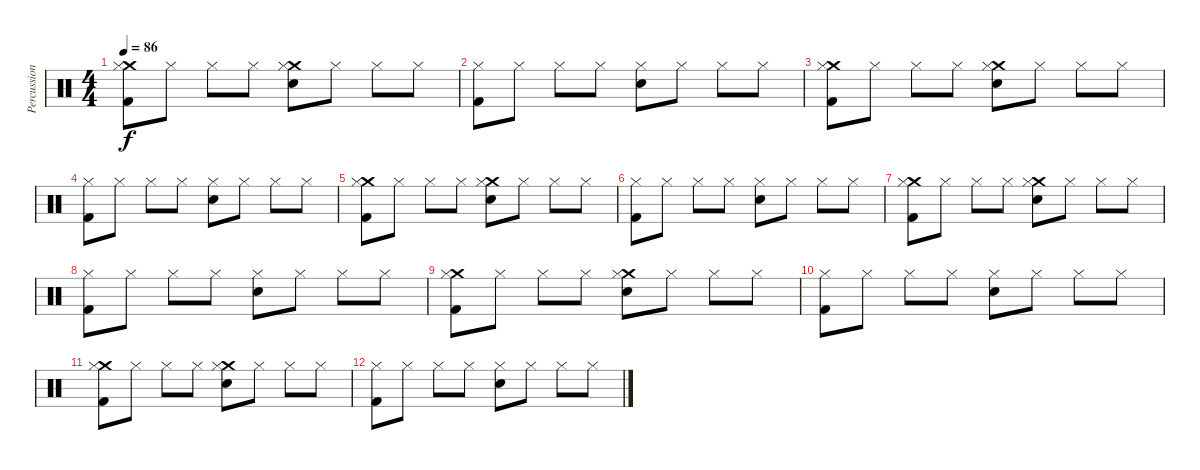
\track ("Percussion" "Percussion") {instrument percussion}
\staff {score}
\articulation defaults
\ts (4 4)
\tempo 86
\clef neutral
\ks c
("Crash medium (hit)" "Hi-Hat (closed)" "Kick (hit) 2").8{dy f volume 15} "Hi-Hat (closed)".8 "Hi-Hat (closed)".8 "Hi-Hat (closed)".8 ("Crash medium (hit)" "Hi-Hat (closed)" "Electric Snare (hit)").8 "Hi-Hat (closed)".8 "Hi-Hat (closed)".8 "Hi-Hat (closed)".8 |
("Hi-Hat (closed)" "Kick (hit) 2").8{volume 13} "Hi-Hat (closed)".8 "Hi-Hat (closed)".8 "Hi-Hat (closed)".8 ("Hi-Hat (closed)" "Electric Snare (hit)").8 "Hi-Hat (closed)".8 "Hi-Hat (closed)".8 "Hi-Hat (closed)".8 |
("Crash medium (hit)" "Hi-Hat (closed)" "Kick (hit) 2").8{volume 12} "Hi-Hat (closed)".8 "Hi-Hat (closed)".8 "Hi-Hat (closed)".8 ("Crash medium (hit)" "Hi-Hat (closed)" "Electric Snare (hit)").8 "Hi-Hat (closed)".8 "Hi-Hat (closed)".8 "Hi-Hat (closed)".8 |
("Hi-Hat (closed)" "Kick (hit) 2").8{volume 11} "Hi-Hat (closed)".8 "Hi-Hat (closed)".8 "Hi-Hat (closed)".8 ("Hi-Hat (closed)" "Electric Snare (hit)").8 "Hi-Hat (closed)".8 "Hi-Hat (closed)".8 "Hi-Hat (closed)".8 |
("Crash medium (hit)" "Hi-Hat (closed)" "Kick (hit) 2").8{volume 10} "Hi-Hat (closed)".8 "Hi-Hat (closed)".8 "Hi-Hat (closed)".8 ("Crash medium (hit)" "Hi-Hat (closed)" "Electric Snare (hit)").8 "Hi-Hat (closed)".8 "Hi-Hat (closed)".8 "Hi-Hat (closed)".8 |
("Hi-Hat (closed)" "Kick (hit) 2").8{volume 9} "Hi-Hat (closed)".8 "Hi-Hat (closed)".8 "Hi-Hat (closed)".8 ("Hi-Hat (closed)" "Electric Snare (hit)").8 "Hi-Hat (closed)".8 "Hi-Hat (closed)".8 "Hi-Hat (closed)".8 |
("Crash medium (hit)" "Hi-Hat (closed)" "Kick (hit) 2").8{volume 8} "Hi-Hat (closed)".8 "Hi-Hat (closed)".8 "Hi-Hat (closed)".8 ("Crash medium (hit)" "Hi-Hat (closed)" "Electric Snare (hit)").8 "Hi-Hat (closed)".8 "Hi-Hat (closed)".8 "Hi-Hat (closed)".8 |
("Hi-Hat (closed)" "Kick (hit) 2").8{volume 6} "Hi-Hat (closed)".8 "Hi-Hat (closed)".8 "Hi-Hat (closed)".8 ("Hi-Hat (closed)" "Electric Snare (hit)").8 "Hi-Hat (closed)".8 "Hi-Hat (closed)".8 "Hi-Hat (closed)".8 |
("Crash medium (hit)" "Hi-Hat (closed)" "Kick (hit) 2").8{volume 5} "Hi-Hat (closed)".8 "Hi-Hat (closed)".8 "Hi-Hat (closed)".8 ("Crash medium (hit)" "Hi-Hat (closed)" "Electric Snare (hit)").8 "Hi-Hat (closed)".8 "Hi-Hat (closed)".8 "Hi-Hat (closed)".8 |
("Hi-Hat (closed)" "Kick (hit) 2").8{volume 4} "Hi-Hat (closed)".8 "Hi-Hat (closed)".8 "Hi-Hat (closed)".8 ("Hi-Hat (closed)" "Electric Snare (hit)").8 "Hi-Hat (closed)".8 "Hi-Hat (closed)".8 "Hi-Hat (closed)".8 |
("Crash medium (hit)" "Hi-Hat (closed)" "Kick (hit) 2").8{volume 3} "Hi-Hat (closed)".8 "Hi-Hat (closed)".8 "Hi-Hat (closed)".8 ("Crash medium (hit)" "Hi-Hat (closed)" "Electric Snare (hit)").8 "Hi-Hat (closed)".8 "Hi-Hat (closed)".8 "Hi-Hat (closed)".8 |
("Hi-Hat (closed)" "Kick (hit) 2").8{volume 2} "Hi-Hat (closed)".8 "Hi-Hat (closed)".8 "Hi-Hat (closed)".8 ("Hi-Hat (closed)" "Electric Snare (hit)").8 "Hi-Hat (closed)".8 "Hi-Hat (closed)".8 "Hi-Hat (closed)".8
